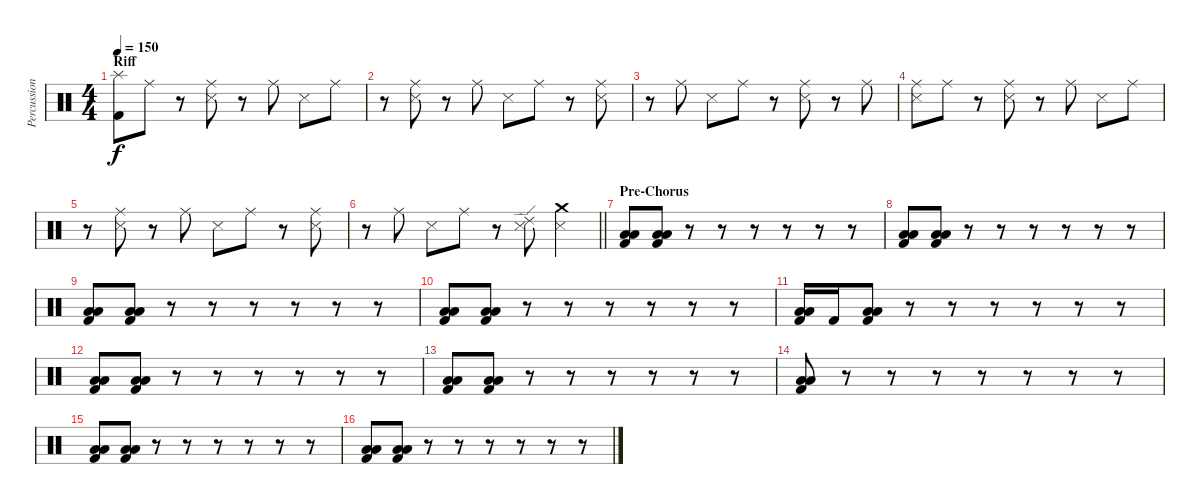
\track ("Percussion" "Percussion") {instrument percussion}
\staff {score}
\articulation defaults
\ts (4 4)
\section ("" "Riff")
\tempo 150
\clef neutral
\ks c
("Splash (hit)" "Kick (hit) 2").8{dy f} "Ride (middle)".8 r.8 ("Ride (middle)" "Snare (side stick) 3").8 r.8 "Ride (middle)".8 "Snare (side stick) 3".8 "Ride (middle)".8 |
r.8 ("Ride (middle)" "Snare (side stick) 3").8 r.8 "Ride (middle)".8 "Snare (side stick) 3".8 "Ride (middle)".8 r.8 ("Ride (middle)" "Snare (side stick) 3").8 |
r.8 "Ride (middle)".8 "Snare (side stick) 3".8 "Ride (middle)".8 r.8 ("Ride (middle)" "Snare (side stick) 3").8 r.8 "Ride (middle)".8 |
("Ride (middle)" "Snare (side stick) 3").8 "Ride (middle)".8 r.8 ("Ride (middle)" "Snare (side stick) 3").8 r.8 "Ride (middle)".8 "Snare (side stick) 3".8 "Ride (middle)".8 |
r.8 ("Ride (middle)" "Snare (side stick) 3").8 r.8 "Ride (middle)".8 "Snare (side stick) 3".8 "Ride (middle)".8 r.8 ("Ride (middle)" "Snare (side stick) 3").8 |
\barLineRight lightlight
r.8 "Ride (middle)".8 "Snare (side stick) 3".8 "Ride (middle)".8 r.8 ("Ride (edge) 2" "Snare (side stick) 3").8 ("Crash medium (hit)" "Snare (side stick) 3").4 |
\section ("" "Pre-Chorus")
("Low Tom (hit)" "Low Floor Tom (hit)" "Kick (hit) 2").8 ("Low Tom (hit)" "Low Floor Tom (hit)" "Kick (hit) 2").8 r.8 r.8 r.8 r.8 r.8 r.8 |
("Low Tom (hit)" "Low Floor Tom (hit)" "Kick (hit) 2").8 ("Low Tom (hit)" "Low Floor Tom (hit)" "Kick (hit) 2").8 r.8 r.8 r.8 r.8 r.8 r.8 |
("Low Tom (hit)" "Low Floor Tom (hit)" "Kick (hit) 2").8 ("Low Tom (hit)" "Low Floor Tom (hit)" "Kick (hit) 2").8 r.8 r.8 r.8 r.8 r.8 r.8 |
("Low Tom (hit)" "Low Floor Tom (hit)" "Kick (hit) 2").8 ("Low Tom (hit)" "Low Floor Tom (hit)" "Kick (hit) 2").8 r.8 r.8 r.8 r.8 r.8 r.8 |
("Low Tom (hit)" "Low Floor Tom (hit)" "Kick (hit) 2").16 "Kick (hit) 2".16 ("Low Tom (hit)" "Low Floor Tom (hit)" "Kick (hit) 2").8 r.8 r.8 r.8 r.8 r.8 r.8 |
("Low Tom (hit)" "Low Floor Tom (hit)" "Kick (hit) 2").8 ("Low Tom (hit)" "Low Floor Tom (hit)" "Kick (hit) 2").8 r.8 r.8 r.8 r.8 r.8 r.8 |
("Low Tom (hit)" "Low Floor Tom (hit)" "Kick (hit) 2").8 ("Low Tom (hit)" "Low Floor Tom (hit)" "Kick (hit) 2").8 r.8 r.8 r.8 r.8 r.8 r.8 |
("Low Tom (hit)" "Low Floor Tom (hit)" "Kick (hit) 2").8 r.8 r.8 r.8 r.8 r.8 r.8 r.8 |
("Low Tom (hit)" "Low Floor Tom (hit)" "Kick (hit) 2").8 ("Low Tom (hit)" "Low Floor Tom (hit)" "Kick (hit) 2").8 r.8 r.8 r.8 r.8 r.8 r.8 |
("Low Tom (hit)" "Low Floor Tom (hit)" "Kick (hit) 2").8 ("Low Tom (hit)" "Low Floor Tom (hit)" "Kick (hit) 2").8 r.8 r.8 r.8 r.8 r.8 r.8
